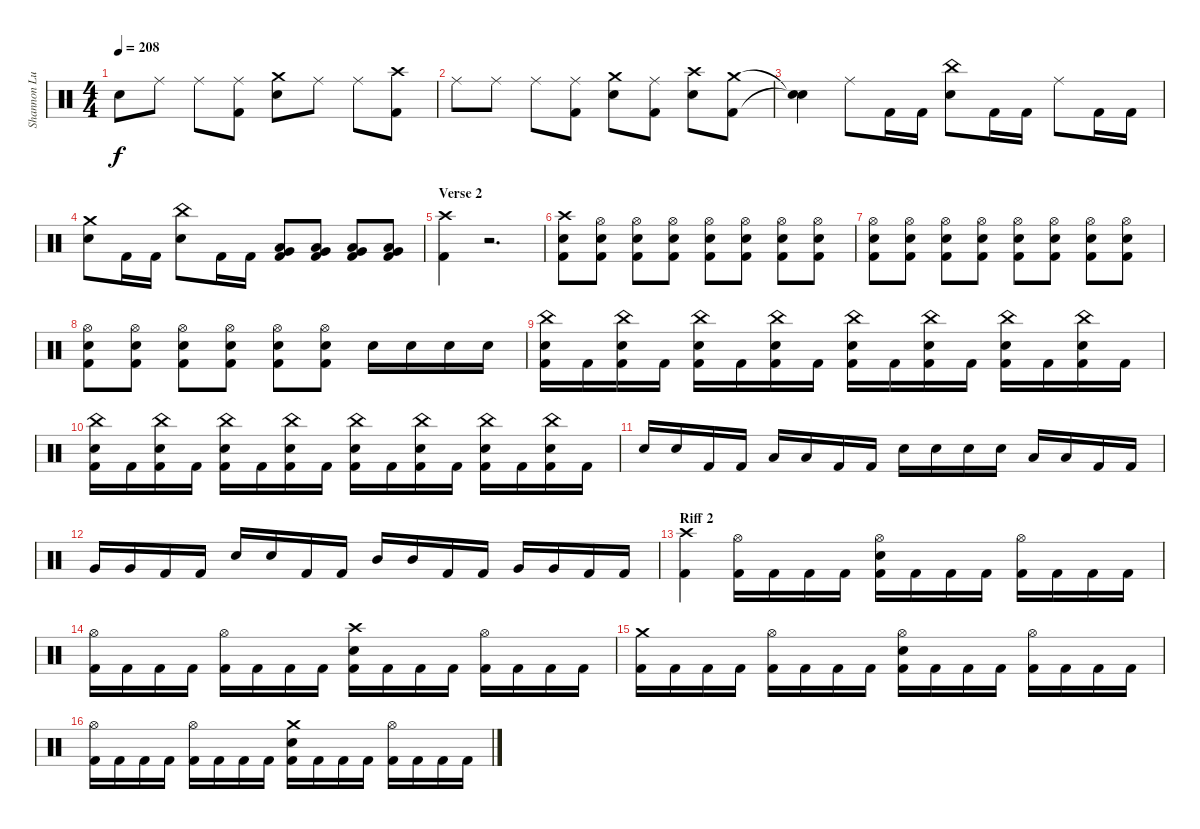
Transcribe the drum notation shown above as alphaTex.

\track ("Shannon Lucas [Drums (Since 2007)]" "Shannon Lu") {instrument percussion}
\staff {score}
\articulation defaults
\ts (4 4)
\tempo 208
\clef neutral
\ks c "Snare (hit)"{t}.8{dy f} "Ride (middle)".8 "Ride (middle)".8
("Ride (middle)" "Kick (hit) 2").8 ("Crash medium (hit)" "Snare (hit) 2").8 "Ride (middle)".8 "Ride (middle)".8 ("Crash high (hit)" "Kick (hit) 2").8 |
"Ride (middle)".8 "Ride (middle)".8 "Ride (middle)".8 ("Ride (middle)" "Kick (hit) 2").8 ("Crash medium (hit)" "Snare (hit) 2").8 ("Ride (middle)" "Kick (hit) 2").8 ("Crash high (hit)" "Snare (hit) 2").8 ("Crash medium (hit)" "Kick (hit) 2").8 |
("Snare (hit)"{t} "Snare (hit)"{t}).4 "Ride (middle)".8 "Kick (hit) 2".16 "Kick (hit) 2".16 ("China (hit)" "Snare (hit) 2").8 "Kick (hit) 2".16 "Kick (hit) 2".16 "Ride (middle)".8 "Kick (hit) 2".16 "Kick (hit) 2".16 |
("Crash medium (hit)" "Snare (hit) 2").8 "Kick (hit) 2".16 "Kick (hit) 2".16 ("China (hit)" "Snare (hit) 2").8 "Kick (hit) 2".16 "Kick (hit) 2".16 ("Very Low Tom (hit)" "Low Floor Tom (hit)" "Kick (hit) 2").8 ("Low Tom (hit)" "Very Low Tom (hit)" "Kick (hit) 2").8 ("Low Tom (hit)" "Very Low Tom (hit)" "Kick (hit) 2").8 ("Low Tom (hit)" "Very Low Tom (hit)" "Kick (hit) 2").8 |
\section ("" "Verse 2")
("Crash high (hit)" "Kick (hit) 2").4 r.2{d} |
("Crash high (hit)" "Snare (hit) 2" "Kick (hit) 2").8 ("Hi-Hat (open)" "Snare (hit) 2" "Kick (hit) 2").8 ("Hi-Hat (open)" "Snare (hit) 2" "Kick (hit) 2").8 ("Hi-Hat (open)" "Snare (hit) 2" "Kick (hit) 2").8 ("Hi-Hat (open)" "Snare (hit) 2" "Kick (hit) 2").8 ("Hi-Hat (open)" "Snare (hit) 2" "Kick (hit) 2").8 ("Hi-Hat (open)" "Snare (hit) 2" "Kick (hit) 2").8 ("Hi-Hat (open)" "Snare (hit) 2" "Kick (hit) 2").8 |
("Hi-Hat (open)" "Snare (hit) 2" "Kick (hit) 2").8 ("Hi-Hat (open)" "Snare (hit) 2" "Kick (hit) 2").8 ("Hi-Hat (open)" "Snare (hit) 2" "Kick (hit) 2").8 ("Hi-Hat (open)" "Snare (hit) 2" "Kick (hit) 2").8 ("Hi-Hat (open)" "Snare (hit) 2" "Kick (hit) 2").8 ("Hi-Hat (open)" "Snare (hit) 2" "Kick (hit) 2").8 ("Hi-Hat (open)" "Snare (hit) 2" "Kick (hit) 2").8 ("Hi-Hat (open)" "Snare (hit) 2" "Kick (hit) 2").8 |
("Hi-Hat (open)" "Snare (hit) 2" "Kick (hit) 2").8 ("Hi-Hat (open)" "Snare (hit) 2" "Kick (hit) 2").8 ("Hi-Hat (open)" "Snare (hit) 2" "Kick (hit) 2").8 ("Hi-Hat (open)" "Snare (hit) 2" "Kick (hit) 2").8 ("Hi-Hat (open)" "Snare (hit) 2" "Kick (hit) 2").8 ("Hi-Hat (open)" "Snare (hit) 2" "Kick (hit) 2").8 "Snare (hit) 2".16 "Snare (hit) 2".16 "Snare (hit) 2".16 "Snare (hit) 2".16 |
("Snare (hit) 2" "China (hit)" "Kick (hit) 2").16 "Kick (hit) 2".16 ("Snare (hit) 2" "China (hit)" "Kick (hit) 2").16 "Kick (hit) 2".16 ("Snare (hit) 2" "China (hit)" "Kick (hit) 2").16 "Kick (hit) 2".16 ("Snare (hit) 2" "China (hit)" "Kick (hit) 2").16 "Kick (hit) 2".16 ("Snare (hit) 2" "China (hit)" "Kick (hit) 2").16 "Kick (hit) 2".16 ("Snare (hit) 2" "China (hit)" "Kick (hit) 2").16 "Kick (hit) 2".16 ("Snare (hit) 2" "China (hit)" "Kick (hit) 2").16 "Kick (hit) 2".16 ("Snare (hit) 2" "China (hit)" "Kick (hit) 2").16 "Kick (hit) 2".16 |
("Snare (hit) 2" "China (hit)" "Kick (hit) 2").16 "Kick (hit) 2".16 ("Snare (hit) 2" "China (hit)" "Kick (hit) 2").16 "Kick (hit) 2".16 ("Snare (hit) 2" "China (hit)" "Kick (hit) 2").16 "Kick (hit) 2".16 ("Snare (hit) 2" "China (hit)" "Kick (hit) 2").16 "Kick (hit) 2".16 ("Snare (hit) 2" "China (hit)" "Kick (hit) 2").16 "Kick (hit) 2".16 ("Snare (hit) 2" "China (hit)" "Kick (hit) 2").16 "Kick (hit) 2".16 ("Snare (hit) 2" "China (hit)" "Kick (hit) 2").16 "Kick (hit) 2".16 ("Snare (hit) 2" "China (hit)" "Kick (hit) 2").16 "Kick (hit) 2".16 |
"Snare (hit) 2".16 "Snare (hit) 2".16 "Kick (hit) 2".16 "Kick (hit) 2".16 "Low Tom (hit)".16 "Low Tom (hit)".16 "Kick (hit) 2".16 "Kick (hit) 2".16 "Snare (hit) 2".16 "Snare (hit) 2".16 "Snare (hit) 2".16 "Snare (hit) 2".16 "Low Tom (hit)".16 "Low Tom (hit)".16 "Kick (hit) 2".16 "Kick (hit) 2".16 |
"Very Low Tom (hit)".16 "Very Low Tom (hit)".16 "Kick (hit) 2".16 "Kick (hit) 2".16 "Snare (hit) 2".16 "Snare (hit) 2".16 "Kick (hit) 2".16 "Kick (hit) 2".16 "Mid Tom (hit)".16 "Mid Tom (hit)".16 "Kick (hit) 2".16 "Kick (hit) 2".16 "Very Low Tom (hit)".16 "Very Low Tom (hit)".16 "Kick (hit) 2".16 "Kick (hit) 2".16 |
\section ("" "Riff 2")
("Crash high (hit)" "Kick (hit) 2").4 ("Hi-Hat (open)" "Kick (hit) 2").16 "Kick (hit) 2".16 "Kick (hit) 2".16 "Kick (hit) 2".16 ("Hi-Hat (open)" "Snare (hit) 2" "Kick (hit) 2").16 "Kick (hit) 2".16 "Kick (hit) 2".16 "Kick (hit) 2".16 ("Hi-Hat (open)" "Kick (hit) 2").16 "Kick (hit) 2".16 "Kick (hit) 2".16 "Kick (hit) 2".16 |
("Hi-Hat (open)" "Kick (hit) 2").16 "Kick (hit) 2".16 "Kick (hit) 2".16 "Kick (hit) 2".16 ("Hi-Hat (open)" "Kick (hit) 2").16 "Kick (hit) 2".16 "Kick (hit) 2".16 "Kick (hit) 2".16 ("Crash high (hit)" "Snare (hit) 2" "Kick (hit) 2").16 "Kick (hit) 2".16 "Kick (hit) 2".16 "Kick (hit) 2".16 ("Hi-Hat (open)" "Kick (hit) 2").16 "Kick (hit) 2".16 "Kick (hit) 2".16 "Kick (hit) 2".16 |
("Crash medium (hit)" "Kick (hit) 2").16 "Kick (hit) 2".16 "Kick (hit) 2".16 "Kick (hit) 2".16 ("Hi-Hat (open)" "Kick (hit) 2").16 "Kick (hit) 2".16 "Kick (hit) 2".16 "Kick (hit) 2".16 ("Hi-Hat (open)" "Snare (hit) 2" "Kick (hit) 2").16 "Kick (hit) 2".16 "Kick (hit) 2".16 "Kick (hit) 2".16 ("Hi-Hat (open)" "Kick (hit) 2").16 "Kick (hit) 2".16 "Kick (hit) 2".16 "Kick (hit) 2".16 |
("Hi-Hat (open)" "Kick (hit) 2").16 "Kick (hit) 2".16 "Kick (hit) 2".16 "Kick (hit) 2".16 ("Hi-Hat (open)" "Kick (hit) 2").16 "Kick (hit) 2".16 "Kick (hit) 2".16 "Kick (hit) 2".16 ("Crash medium (hit)" "Snare (hit) 2" "Kick (hit) 2").16 "Kick (hit) 2".16 "Kick (hit) 2".16 "Kick (hit) 2".16 ("Hi-Hat (open)" "Kick (hit) 2").16 "Kick (hit) 2".16 "Kick (hit) 2".16 "Kick (hit) 2".16
